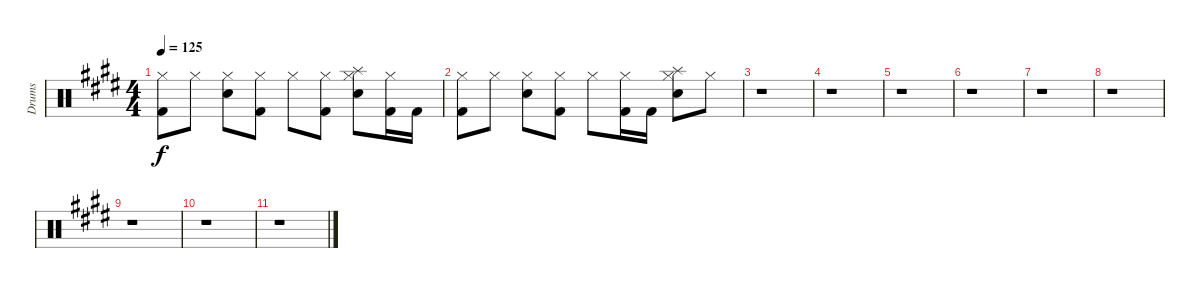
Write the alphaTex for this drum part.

\track ("Drums" "Drums") {instrument percussion}
\staff {score}
\articulation defaults
\ts (4 4)
\tempo 125
\clef neutral
\ks c#minor
("Hi-Hat (closed)" "Kick (hit) 2").8{dy f} "Hi-Hat (closed)".8 ("Hi-Hat (closed)" "Snare (hit) 2").8 ("Hi-Hat (closed)" "Kick (hit) 2").8 "Hi-Hat (closed)".8 ("Hi-Hat (closed)" "Kick (hit) 2").8 ("Hi-Hat (closed)" "Snare (hit) 2" "Splash (hit)").8 ("Hi-Hat (closed)" "Kick (hit) 2").16 "Kick (hit) 2".16 |
("Hi-Hat (closed)" "Kick (hit) 2").8 "Hi-Hat (closed)".8 ("Hi-Hat (closed)" "Snare (hit) 2").8 ("Hi-Hat (closed)" "Kick (hit) 2").8 "Hi-Hat (closed)".8 ("Hi-Hat (closed)" "Kick (hit) 2").16 "Kick (hit) 2".16 ("Hi-Hat (closed)" "Snare (hit) 2" "Splash (hit)").8 "Hi-Hat (closed)".8 |
r.1 |
r.1 |
r.1 |
r.1 |
r.1 |
r.1 |
r.1 |
r.1 |
r.1
